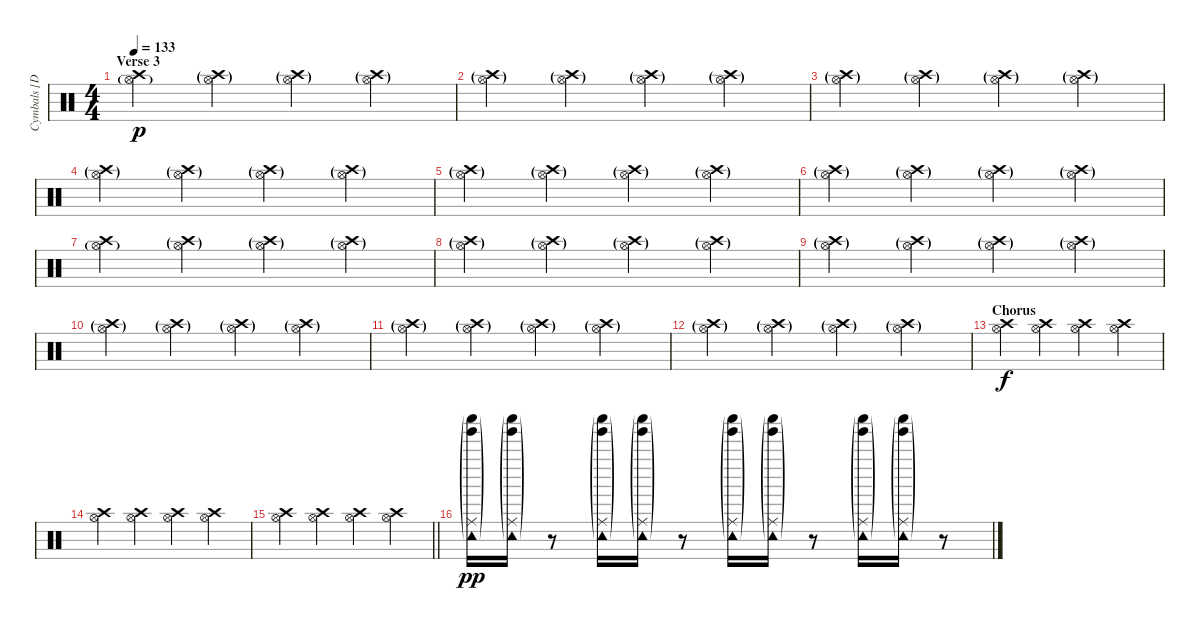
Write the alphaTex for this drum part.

\track ("Cymbals [Dave Grohl]" "Cymbals [D") {instrument percussion}
\staff {score}
\articulation defaults
\ts (4 4)
\section ("" "Verse 3")
\tempo 133
\clef neutral
\ks c
("Hi-Hat (open)"{g} "Crash high (hit)").4{dy p} ("Hi-Hat (open)"{g} "Crash high (hit)"{g}).4 ("Hi-Hat (open)"{g} "Crash high (hit)"{g}).4 ("Hi-Hat (open)"{g} "Crash high (hit)"{g}).4 |
("Hi-Hat (open)"{g} "Crash high (hit)"{g}).4 ("Hi-Hat (open)"{g} "Crash high (hit)"{g}).4 ("Hi-Hat (open)"{g} "Crash high (hit)"{g}).4 ("Hi-Hat (open)"{g} "Crash high (hit)"{g}).4 |
("Hi-Hat (open)"{g} "Crash high (hit)"{g}).4 ("Hi-Hat (open)"{g} "Crash high (hit)"{g}).4 ("Hi-Hat (open)"{g} "Crash high (hit)"{g}).4 ("Hi-Hat (open)"{g} "Crash high (hit)"{g}).4 |
("Hi-Hat (open)"{g} "Crash high (hit)"{g}).4 ("Hi-Hat (open)"{g} "Crash high (hit)"{g}).4 ("Hi-Hat (open)"{g} "Crash high (hit)"{g}).4 ("Hi-Hat (open)"{g} "Crash high (hit)"{g}).4 |
("Hi-Hat (open)"{g} "Crash high (hit)"{g}).4 ("Hi-Hat (open)"{g} "Crash high (hit)"{g}).4 ("Hi-Hat (open)"{g} "Crash high (hit)"{g}).4 ("Hi-Hat (open)"{g} "Crash high (hit)"{g}).4 |
("Hi-Hat (open)"{g} "Crash high (hit)"{g}).4 ("Hi-Hat (open)"{g} "Crash high (hit)"{g}).4 ("Hi-Hat (open)"{g} "Crash high (hit)"{g}).4 ("Hi-Hat (open)"{g} "Crash high (hit)"{g}).4 |
("Hi-Hat (open)"{g} "Crash high (hit)").4 ("Hi-Hat (open)"{g} "Crash high (hit)"{g}).4 ("Hi-Hat (open)"{g} "Crash high (hit)"{g}).4 ("Hi-Hat (open)"{g} "Crash high (hit)"{g}).4 |
("Hi-Hat (open)"{g} "Crash high (hit)"{g}).4 ("Hi-Hat (open)"{g} "Crash high (hit)"{g}).4 ("Hi-Hat (open)"{g} "Crash high (hit)"{g}).4 ("Hi-Hat (open)"{g} "Crash high (hit)"{g}).4 |
("Hi-Hat (open)"{g} "Crash high (hit)"{g}).4 ("Hi-Hat (open)"{g} "Crash high (hit)"{g}).4 ("Hi-Hat (open)"{g} "Crash high (hit)"{g}).4 ("Hi-Hat (open)"{g} "Crash high (hit)"{g}).4 |
("Hi-Hat (open)"{g} "Crash high (hit)"{g}).4 ("Hi-Hat (open)"{g} "Crash high (hit)"{g}).4 ("Hi-Hat (open)"{g} "Crash high (hit)"{g}).4 ("Hi-Hat (open)"{g} "Crash high (hit)"{g}).4 |
("Hi-Hat (open)"{g} "Crash high (hit)"{g}).4 ("Hi-Hat (open)"{g} "Crash high (hit)"{g}).4 ("Hi-Hat (open)"{g} "Crash high (hit)"{g}).4 ("Hi-Hat (open)"{g} "Crash high (hit)"{g}).4 |
("Hi-Hat (open)"{g} "Crash high (hit)"{g}).4 ("Hi-Hat (open)"{g} "Crash high (hit)"{g}).4 ("Hi-Hat (open)"{g} "Crash high (hit)"{g}).4 ("Hi-Hat (open)"{g} "Crash high (hit)"{g}).4 |
\section ("" "Chorus")
("Hi-Hat (open)" "Crash high (hit)").4{dy f volume 11 balance 8} ("Hi-Hat (open)" "Crash high (hit)").4 ("Hi-Hat (open)" "Crash high (hit)").4 ("Hi-Hat (open)" "Crash high (hit)").4 |
("Hi-Hat (open)" "Crash high (hit)").4 ("Hi-Hat (open)" "Crash high (hit)").4 ("Hi-Hat (open)" "Crash high (hit)").4 ("Hi-Hat (open)" "Crash high (hit)").4 |
\barLineRight lightlight
("Hi-Hat (open)" "Crash high (hit)").4 ("Hi-Hat (open)" "Crash high (hit)").4 ("Hi-Hat (open)" "Crash high (hit)").4 ("Hi-Hat (open)" "Crash high (hit)").4 |
("Ride (middle)"{g} "Tambourine (hit)"{g} "Tinkle Bell (hit)"{g} "Shaker (hit)"{g}).16{dy pp volume 6 balance 4} ("Ride (middle)"{g} "Tambourine (hit)"{g} "Tinkle Bell (hit)"{g} "Shaker (hit)"{g}).16 r.8 ("Ride (middle)"{g} "Tambourine (hit)"{g} "Tinkle Bell (hit)"{g} "Shaker (hit)"{g}).16{balance 12} ("Ride (middle)"{g} "Tambourine (hit)"{g} "Tinkle Bell (hit)"{g} "Shaker (hit)"{g}).16 r.8 ("Ride (middle)"{g} "Tambourine (hit)"{g} "Tinkle Bell (hit)"{g} "Shaker (hit)"{g}).16{balance 4} ("Ride (middle)"{g} "Tambourine (hit)"{g} "Tinkle Bell (hit)"{g} "Shaker (hit)"{g}).16 r.8 ("Ride (middle)"{g} "Tambourine (hit)"{g} "Tinkle Bell (hit)"{g} "Shaker (hit)"{g}).16{balance 12} ("Ride (middle)"{g} "Tambourine (hit)"{g} "Tinkle Bell (hit)"{g} "Shaker (hit)"{g}).16 r.8
